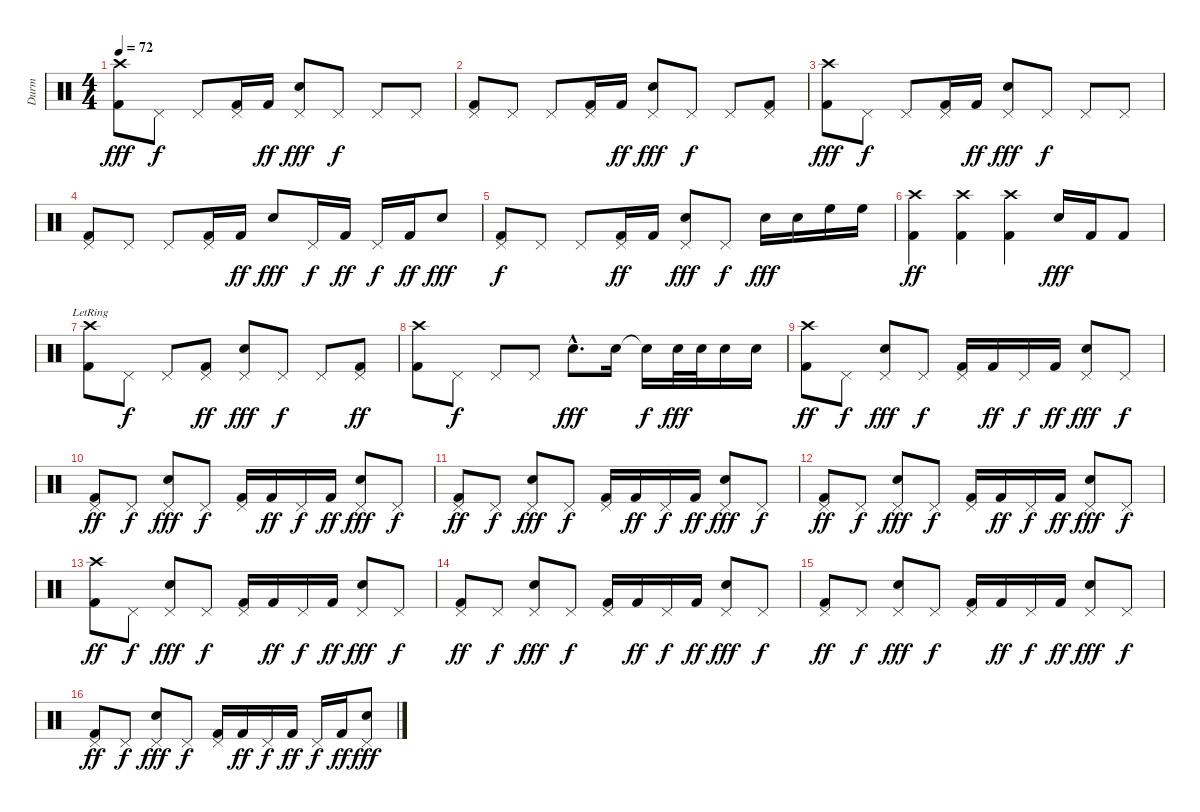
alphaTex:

\track ("Durm" "Durm") {instrument percussion}
\staff {score}
\articulation defaults
\ts (4 4)
\tempo 72
\clef neutral
\ks c
("Crash high (hit)" "Kick (hit) 2").8{dy fff} "Pedal Hi-Hat (hit)".8{dy f} "Pedal Hi-Hat (hit)".8 ("Pedal Hi-Hat (hit)" "Kick (hit) 2").16 "Kick (hit) 2".16{dy ff} ("Pedal Hi-Hat (hit)" "Electric Snare (hit)").8{dy fff} "Pedal Hi-Hat (hit)".8{dy f} "Pedal Hi-Hat (hit)".8 "Pedal Hi-Hat (hit)".8 |
("Pedal Hi-Hat (hit)" "Kick (hit) 2").8 "Pedal Hi-Hat (hit)".8 "Pedal Hi-Hat (hit)".8 ("Pedal Hi-Hat (hit)" "Kick (hit) 2").16 "Kick (hit) 2".16{dy ff} ("Pedal Hi-Hat (hit)" "Electric Snare (hit)").8{dy fff} "Pedal Hi-Hat (hit)".8{dy f} "Pedal Hi-Hat (hit)".8 ("Pedal Hi-Hat (hit)" "Kick (hit) 2").8 |
("Crash high (hit)" "Kick (hit) 2").8{dy fff} "Pedal Hi-Hat (hit)".8{dy f} "Pedal Hi-Hat (hit)".8 ("Pedal Hi-Hat (hit)" "Kick (hit) 2").16 "Kick (hit) 2".16{dy ff} ("Pedal Hi-Hat (hit)" "Electric Snare (hit)").8{dy fff} "Pedal Hi-Hat (hit)".8{dy f} "Pedal Hi-Hat (hit)".8 "Pedal Hi-Hat (hit)".8 |
("Pedal Hi-Hat (hit)" "Kick (hit) 2").8 "Pedal Hi-Hat (hit)".8 "Pedal Hi-Hat (hit)".8 ("Pedal Hi-Hat (hit)" "Kick (hit) 2").16 "Kick (hit) 2".16{dy ff} "Electric Snare (hit)".8{dy fff} "Pedal Hi-Hat (hit)".16{dy f} "Kick (hit) 2".16{dy ff} "Pedal Hi-Hat (hit)".16{dy f} "Kick (hit) 2".16{dy ff} "Electric Snare (hit)".8{dy fff} |
("Pedal Hi-Hat (hit)" "Kick (hit) 2").8{dy f} "Pedal Hi-Hat (hit)".8 "Pedal Hi-Hat (hit)".8 ("Pedal Hi-Hat (hit)" "Kick (hit) 2").16{dy ff} "Kick (hit) 2".16 ("Pedal Hi-Hat (hit)" "Electric Snare (hit)").8{dy fff} "Pedal Hi-Hat (hit)".8{dy f} "Electric Snare (hit)".16{dy fff} "Electric Snare (hit)".16 "High Floor Tom (hit)".16 "High Floor Tom (hit)".16 |
("Crash high (hit)" "Kick (hit) 2").4{dy ff} ("Crash high (hit)" "Kick (hit) 2").4 ("Crash high (hit)" "Kick (hit) 2").4 "Electric Snare (hit)".16{dy fff} "Kick (hit) 2".16 "Kick (hit) 2".8 |
("Crash high (hit)"{lr} "Kick (hit) 2").8 "Pedal Hi-Hat (hit)".8{dy f} "Pedal Hi-Hat (hit)".8 ("Pedal Hi-Hat (hit)" "Kick (hit) 2").8{dy ff} ("Pedal Hi-Hat (hit)" "Electric Snare (hit)").8{dy fff} "Pedal Hi-Hat (hit)".8{dy f} "Pedal Hi-Hat (hit)".8 ("Pedal Hi-Hat (hit)" "Kick (hit) 2").8{dy ff} |
("Crash high (hit)" "Kick (hit) 2").8 "Pedal Hi-Hat (hit)".8{dy f} "Pedal Hi-Hat (hit)".8 "Pedal Hi-Hat (hit)".8 "Electric Snare (hit)"{hac}.8{d dy fff} "Electric Snare (hit)".16 "Snare (hit)"{t}.16{dy f} "Electric Snare (hit)".32{dy fff} "Electric Snare (hit)".32 "Electric Snare (hit)".16 "Electric Snare (hit)".16 |
("Crash high (hit)" "Kick (hit) 2").8{dy ff} "Pedal Hi-Hat (hit)".8{dy f} ("Pedal Hi-Hat (hit)" "Electric Snare (hit)").8{dy fff} "Pedal Hi-Hat (hit)".8{dy f} ("Pedal Hi-Hat (hit)" "Kick (hit) 2").16 "Kick (hit) 2".16{dy ff} "Pedal Hi-Hat (hit)".16{dy f} "Kick (hit) 2".16{dy ff} ("Pedal Hi-Hat (hit)" "Electric Snare (hit)").8{dy fff} "Pedal Hi-Hat (hit)".8{dy f} |
("Pedal Hi-Hat (hit)" "Kick (hit) 2").8{dy ff} "Pedal Hi-Hat (hit)".8{dy f} ("Pedal Hi-Hat (hit)" "Electric Snare (hit)").8{dy fff} "Pedal Hi-Hat (hit)".8{dy f} ("Pedal Hi-Hat (hit)" "Kick (hit) 2").16 "Kick (hit) 2".16{dy ff} "Pedal Hi-Hat (hit)".16{dy f} "Kick (hit) 2".16{dy ff} ("Pedal Hi-Hat (hit)" "Electric Snare (hit)").8{dy fff} "Pedal Hi-Hat (hit)".8{dy f} |
("Pedal Hi-Hat (hit)" "Kick (hit) 2").8{dy ff} "Pedal Hi-Hat (hit)".8{dy f} ("Pedal Hi-Hat (hit)" "Electric Snare (hit)").8{dy fff} "Pedal Hi-Hat (hit)".8{dy f} ("Pedal Hi-Hat (hit)" "Kick (hit) 2").16 "Kick (hit) 2".16{dy ff} "Pedal Hi-Hat (hit)".16{dy f} "Kick (hit) 2".16{dy ff} ("Pedal Hi-Hat (hit)" "Electric Snare (hit)").8{dy fff} "Pedal Hi-Hat (hit)".8{dy f} |
("Pedal Hi-Hat (hit)" "Kick (hit) 2").8{dy ff} "Pedal Hi-Hat (hit)".8{dy f} ("Pedal Hi-Hat (hit)" "Electric Snare (hit)").8{dy fff} "Pedal Hi-Hat (hit)".8{dy f} ("Pedal Hi-Hat (hit)" "Kick (hit) 2").16 "Kick (hit) 2".16{dy ff} "Pedal Hi-Hat (hit)".16{dy f} "Kick (hit) 2".16{dy ff} ("Pedal Hi-Hat (hit)" "Electric Snare (hit)").8{dy fff} "Pedal Hi-Hat (hit)".8{dy f} |
("Crash high (hit)" "Kick (hit) 2").8{dy ff} "Pedal Hi-Hat (hit)".8{dy f} ("Pedal Hi-Hat (hit)" "Electric Snare (hit)").8{dy fff} "Pedal Hi-Hat (hit)".8{dy f} ("Pedal Hi-Hat (hit)" "Kick (hit) 2").16 "Kick (hit) 2".16{dy ff} "Pedal Hi-Hat (hit)".16{dy f} "Kick (hit) 2".16{dy ff} ("Pedal Hi-Hat (hit)" "Electric Snare (hit)").8{dy fff} "Pedal Hi-Hat (hit)".8{dy f} |
("Pedal Hi-Hat (hit)" "Kick (hit) 2").8{dy ff} "Pedal Hi-Hat (hit)".8{dy f} ("Pedal Hi-Hat (hit)" "Electric Snare (hit)").8{dy fff} "Pedal Hi-Hat (hit)".8{dy f} ("Pedal Hi-Hat (hit)" "Kick (hit) 2").16 "Kick (hit) 2".16{dy ff} "Pedal Hi-Hat (hit)".16{dy f} "Kick (hit) 2".16{dy ff} ("Pedal Hi-Hat (hit)" "Electric Snare (hit)").8{dy fff} "Pedal Hi-Hat (hit)".8{dy f} |
("Pedal Hi-Hat (hit)" "Kick (hit) 2").8{dy ff} "Pedal Hi-Hat (hit)".8{dy f} ("Pedal Hi-Hat (hit)" "Electric Snare (hit)").8{dy fff} "Pedal Hi-Hat (hit)".8{dy f} ("Pedal Hi-Hat (hit)" "Kick (hit) 2").16 "Kick (hit) 2".16{dy ff} "Pedal Hi-Hat (hit)".16{dy f} "Kick (hit) 2".16{dy ff} ("Pedal Hi-Hat (hit)" "Electric Snare (hit)").8{dy fff} "Pedal Hi-Hat (hit)".8{dy f} |
("Pedal Hi-Hat (hit)" "Kick (hit) 2").8{dy ff} "Pedal Hi-Hat (hit)".8{dy f} ("Pedal Hi-Hat (hit)" "Electric Snare (hit)").8{dy fff} "Pedal Hi-Hat (hit)".8{dy f} ("Pedal Hi-Hat (hit)" "Kick (hit) 2").16 "Kick (hit) 2".16{dy ff} "Pedal Hi-Hat (hit)".16{dy f} "Kick (hit) 2".16{dy ff} "Pedal Hi-Hat (hit)".16{dy f} "Kick (hit) 2".16{dy ff} ("Pedal Hi-Hat (hit)" "Electric Snare (hit)").8{dy fff}
